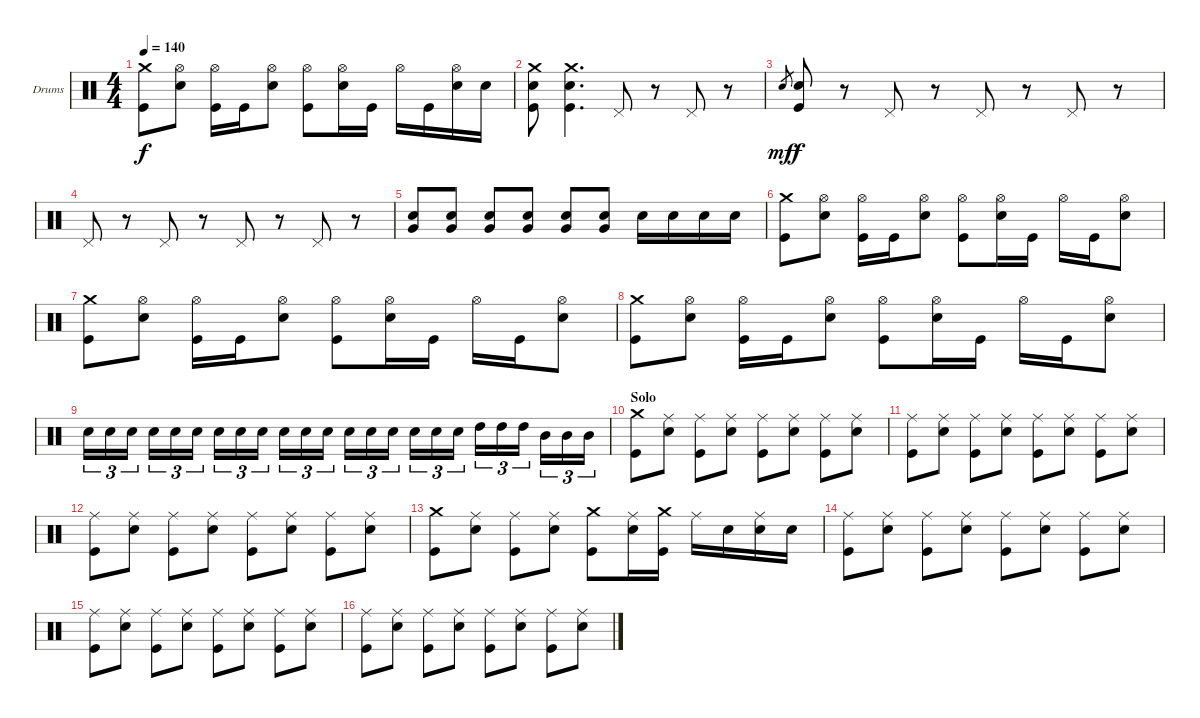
\defaultSystemsLayout 4
\bracketExtendMode nobrackets
\firstSystemTrackNameOrientation horizontal
\otherSystemsTrackNameOrientation horizontal
\track ("Phil Taylor" "Drums") {instrument percussion}
\staff {score}
\articulation defaults
\ts (4 4)
\tempo 140
\clef neutral
\ks c
("Crash medium (hit)" "Kick (hit)").8{dy f} ("Hi-Hat (open)" "Snare (hit) 2").8 ("Hi-Hat (open)" "Kick (hit)").16 "Kick (hit)".16 ("Hi-Hat (open)" "Snare (hit) 2").8 ("Hi-Hat (open)" "Kick (hit)").8 ("Hi-Hat (open)" "Snare (hit) 2").16 "Kick (hit)".16 "Hi-Hat (open)".16 "Kick (hit)".16 ("Hi-Hat (open)" "Snare (hit) 2").16 "Snare (hit) 2".16 |
("Crash medium (hit)" "Snare (hit) 2" "Kick (hit)").8 ("Kick (hit)" "Snare (hit) 2" "Crash medium (hit)").4{d} "Pedal Hi-Hat (hit)".8 r.8 "Pedal Hi-Hat (hit)".8 r.8 |
"Snare (hit) 2".8{gr dy mf} ("Snare (hit) 2" "Kick (hit)").8{dy f} r.8 "Pedal Hi-Hat (hit)".8 r.8 "Pedal Hi-Hat (hit)".8 r.8 "Pedal Hi-Hat (hit)".8 r.8 |
"Pedal Hi-Hat (hit)".8 r.8 "Pedal Hi-Hat (hit)".8 r.8 "Pedal Hi-Hat (hit)".8 r.8 "Pedal Hi-Hat (hit)".8 r.8 |
("Snare (hit) 2" "Very Low Tom (hit)").8 ("Snare (hit) 2" "Very Low Tom (hit)").8 ("Snare (hit) 2" "Very Low Tom (hit)").8 ("Snare (hit) 2" "Very Low Tom (hit)").8 ("Snare (hit) 2" "Very Low Tom (hit)").8 ("Snare (hit) 2" "Very Low Tom (hit)").8 "Snare (hit) 2".16 "Snare (hit) 2".16 "Snare (hit) 2".16 "Snare (hit) 2".16 |
("Crash medium (hit)" "Kick (hit)").8 ("Hi-Hat (open)" "Snare (hit) 2").8 ("Hi-Hat (open)" "Kick (hit)").16 "Kick (hit)".16 ("Hi-Hat (open)" "Snare (hit) 2").8 ("Hi-Hat (open)" "Kick (hit)").8 ("Hi-Hat (open)" "Snare (hit) 2").16 "Kick (hit)".16 "Hi-Hat (open)".16 "Kick (hit)".16 ("Hi-Hat (open)" "Snare (hit) 2").8 |
("Crash medium (hit)" "Kick (hit)").8 ("Hi-Hat (open)" "Snare (hit) 2").8 ("Hi-Hat (open)" "Kick (hit)").16 "Kick (hit)".16 ("Hi-Hat (open)" "Snare (hit) 2").8 ("Hi-Hat (open)" "Kick (hit)").8 ("Hi-Hat (open)" "Snare (hit) 2").16 "Kick (hit)".16 "Hi-Hat (open)".16 "Kick (hit)".16 ("Hi-Hat (open)" "Snare (hit) 2").8 |
("Crash medium (hit)" "Kick (hit)").8 ("Hi-Hat (open)" "Snare (hit) 2").8 ("Hi-Hat (open)" "Kick (hit)").16 "Kick (hit)".16 ("Hi-Hat (open)" "Snare (hit) 2").8 ("Hi-Hat (open)" "Kick (hit)").8 ("Hi-Hat (open)" "Snare (hit) 2").16 "Kick (hit)".16 "Hi-Hat (open)".16 "Kick (hit)".16 ("Hi-Hat (open)" "Snare (hit) 2").8 |
"Snare (hit) 2".16{tu (3 2)} "Snare (hit) 2".16{tu (3 2)} "Snare (hit) 2".16{tu (3 2)} "Snare (hit) 2".16{tu (3 2)} "Snare (hit) 2".16{tu (3 2)} "Snare (hit) 2".16{tu (3 2)} "Snare (hit) 2".16{tu (3 2)} "Snare (hit) 2".16{tu (3 2)} "Snare (hit) 2".16{tu (3 2)} "Snare (hit) 2".16{tu (3 2)} "Snare (hit) 2".16{tu (3 2)} "Snare (hit) 2".16{tu (3 2)} "Snare (hit) 2".16{tu (3 2)} "Snare (hit) 2".16{tu (3 2)} "Snare (hit) 2".16{tu (3 2)} "Snare (hit) 2".16{tu (3 2)} "Snare (hit) 2".16{tu (3 2)} "Snare (hit) 2".16{tu (3 2)} "High Tom (hit)".16{tu (3 2)} "High Tom (hit)".16{tu (3 2)} "High Tom (hit)".16{tu (3 2)} "Mid Tom (hit)".16{tu (3 2)} "Mid Tom (hit)".16{tu (3 2)} "Mid Tom (hit)".16{tu (3 2)} |
\section ("" "Solo")
("Crash medium (hit)" "Kick (hit)").8 ("Ride (middle)" "Snare (hit) 2").8 ("Ride (middle)" "Kick (hit)").8 ("Ride (middle)" "Snare (hit) 2").8 ("Ride (middle)" "Kick (hit)").8 ("Ride (middle)" "Snare (hit) 2").8 ("Ride (middle)" "Kick (hit)").8 ("Ride (middle)" "Snare (hit) 2").8 |
("Ride (middle)" "Kick (hit)").8 ("Ride (middle)" "Snare (hit) 2").8 ("Ride (middle)" "Kick (hit)").8 ("Ride (middle)" "Snare (hit) 2").8 ("Ride (middle)" "Kick (hit)").8 ("Ride (middle)" "Snare (hit) 2").8 ("Ride (middle)" "Kick (hit)").8 ("Ride (middle)" "Snare (hit) 2").8 |
("Ride (middle)" "Kick (hit)").8 ("Ride (middle)" "Snare (hit) 2").8 ("Ride (middle)" "Kick (hit)").8 ("Ride (middle)" "Snare (hit) 2").8 ("Ride (middle)" "Kick (hit)").8 ("Ride (middle)" "Snare (hit) 2").8 ("Ride (middle)" "Kick (hit)").8 ("Ride (middle)" "Snare (hit) 2").8 |
("Crash medium (hit)" "Kick (hit)").8 ("Ride (middle)" "Snare (hit) 2").8 ("Ride (middle)" "Kick (hit)").8 ("Ride (middle)" "Snare (hit) 2").8 ("Crash medium (hit)" "Kick (hit)").8 ("Ride (middle)" "Snare (hit) 2").16 ("Crash medium (hit)" "Kick (hit)").16 "Ride (middle)".16 "Snare (hit) 2".16 ("Ride (middle)" "Snare (hit) 2").16 "Snare (hit) 2".16 |
("Ride (middle)" "Kick (hit)").8 ("Ride (middle)" "Snare (hit) 2").8 ("Ride (middle)" "Kick (hit)").8 ("Ride (middle)" "Snare (hit) 2").8 ("Ride (middle)" "Kick (hit)").8 ("Ride (middle)" "Snare (hit) 2").8 ("Ride (middle)" "Kick (hit)").8 ("Ride (middle)" "Snare (hit) 2").8 |
("Ride (middle)" "Kick (hit)").8 ("Ride (middle)" "Snare (hit) 2").8 ("Ride (middle)" "Kick (hit)").8 ("Ride (middle)" "Snare (hit) 2").8 ("Ride (middle)" "Kick (hit)").8 ("Ride (middle)" "Snare (hit) 2").8 ("Ride (middle)" "Kick (hit)").8 ("Ride (middle)" "Snare (hit) 2").8 |
("Ride (middle)" "Kick (hit)").8 ("Ride (middle)" "Snare (hit) 2").8 ("Ride (middle)" "Kick (hit)").8 ("Ride (middle)" "Snare (hit) 2").8 ("Ride (middle)" "Kick (hit)").8 ("Ride (middle)" "Snare (hit) 2").8 ("Ride (middle)" "Kick (hit)").8 ("Ride (middle)" "Snare (hit) 2").8
